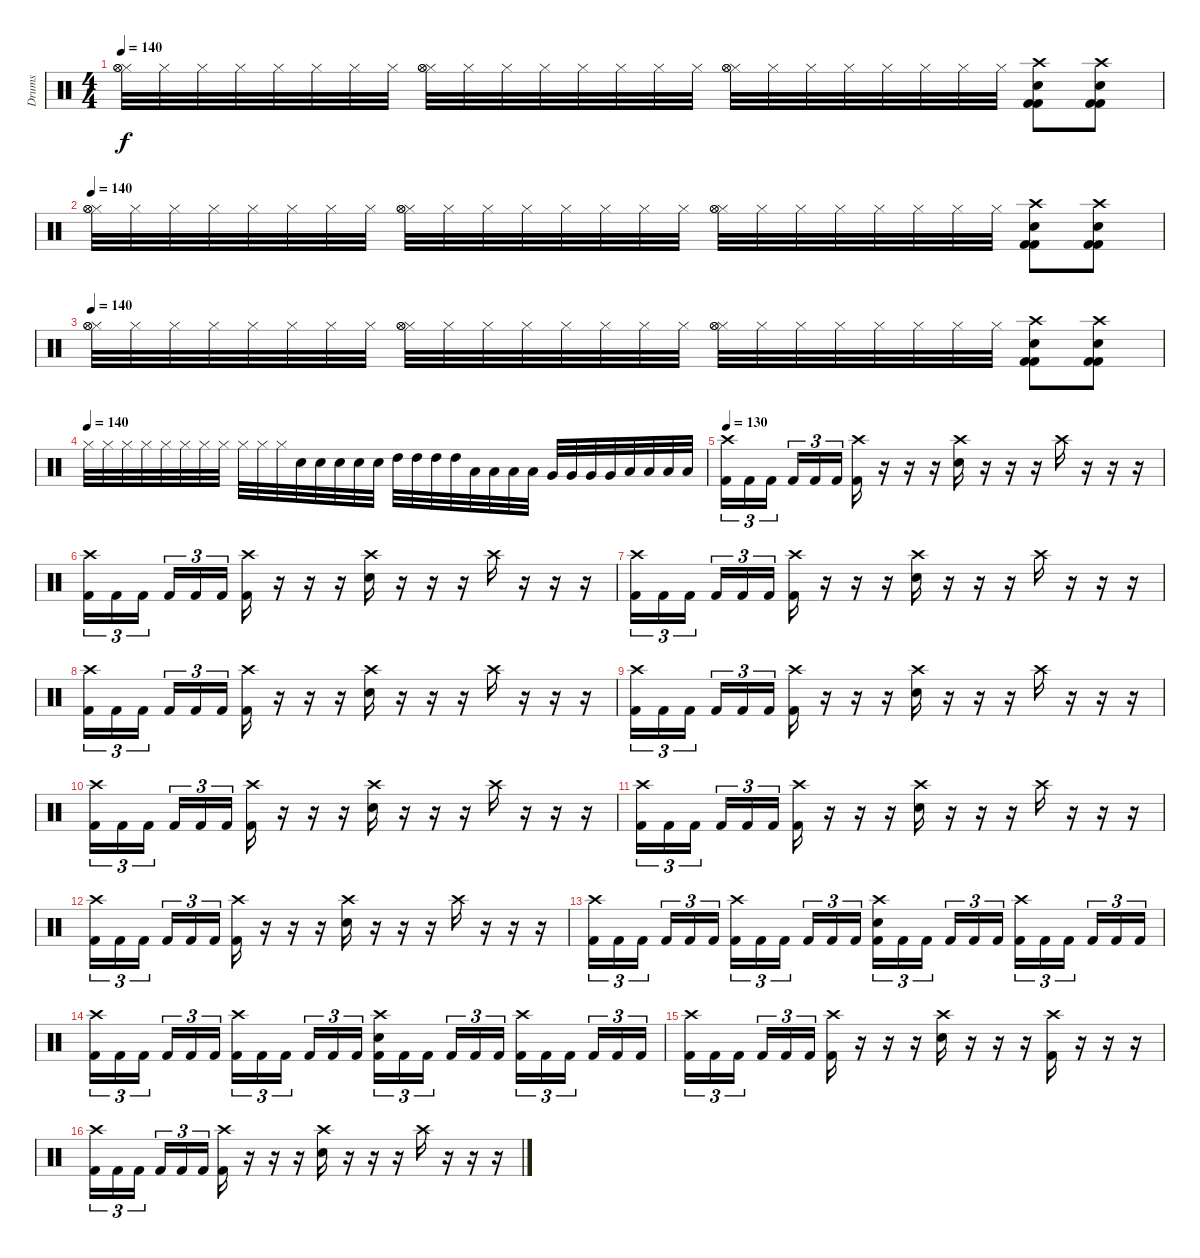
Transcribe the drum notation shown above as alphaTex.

\track ("Drums" "Drums") {instrument percussion}
\staff {score}
\articulation defaults
\ts (4 4)
\tempo 140
\clef neutral
\ks c
("Hi-Hat (closed)" "Hi-Hat (open)" "Hi-Hat (open)").32{dy f} "Hi-Hat (closed)".32 "Hi-Hat (closed)".32 "Hi-Hat (closed)".32 "Hi-Hat (closed)".32 "Hi-Hat (closed)".32 "Hi-Hat (closed)".32 "Hi-Hat (closed)".32 ("Hi-Hat (closed)" "Hi-Hat (open)" "Hi-Hat (open)").32 "Hi-Hat (closed)".32 "Hi-Hat (closed)".32 "Hi-Hat (closed)".32 "Hi-Hat (closed)".32 "Hi-Hat (closed)".32 "Hi-Hat (closed)".32 "Hi-Hat (closed)".32 ("Hi-Hat (closed)" "Hi-Hat (open)" "Hi-Hat (open)").32 "Hi-Hat (closed)".32 "Hi-Hat (closed)".32 "Hi-Hat (closed)".32 "Hi-Hat (closed)".32 "Hi-Hat (closed)".32 "Hi-Hat (closed)".32 "Hi-Hat (closed)".32 ("Crash high (hit)" "Electric Snare (hit)" "Kick (hit) 2" "Kick (hit) 2").8 ("Crash high (hit)" "Electric Snare (hit)" "Kick (hit) 2" "Kick (hit) 2").8 |
\tempo 140
("Hi-Hat (closed)" "Hi-Hat (open)" "Hi-Hat (open)").32 "Hi-Hat (closed)".32 "Hi-Hat (closed)".32 "Hi-Hat (closed)".32 "Hi-Hat (closed)".32 "Hi-Hat (closed)".32 "Hi-Hat (closed)".32 "Hi-Hat (closed)".32 ("Hi-Hat (closed)" "Hi-Hat (open)" "Hi-Hat (open)").32 "Hi-Hat (closed)".32 "Hi-Hat (closed)".32 "Hi-Hat (closed)".32 "Hi-Hat (closed)".32 "Hi-Hat (closed)".32 "Hi-Hat (closed)".32 "Hi-Hat (closed)".32 ("Hi-Hat (closed)" "Hi-Hat (open)" "Hi-Hat (open)").32 "Hi-Hat (closed)".32 "Hi-Hat (closed)".32 "Hi-Hat (closed)".32 "Hi-Hat (closed)".32 "Hi-Hat (closed)".32 "Hi-Hat (closed)".32 "Hi-Hat (closed)".32 ("Crash high (hit)" "Electric Snare (hit)" "Kick (hit) 2" "Kick (hit) 2").8 ("Crash high (hit)" "Electric Snare (hit)" "Kick (hit) 2" "Kick (hit) 2").8 |
\tempo 140
("Hi-Hat (closed)" "Hi-Hat (open)" "Hi-Hat (open)").32 "Hi-Hat (closed)".32 "Hi-Hat (closed)".32 "Hi-Hat (closed)".32 "Hi-Hat (closed)".32 "Hi-Hat (closed)".32 "Hi-Hat (closed)".32 "Hi-Hat (closed)".32 ("Hi-Hat (closed)" "Hi-Hat (open)" "Hi-Hat (open)").32 "Hi-Hat (closed)".32 "Hi-Hat (closed)".32 "Hi-Hat (closed)".32 "Hi-Hat (closed)".32 "Hi-Hat (closed)".32 "Hi-Hat (closed)".32 "Hi-Hat (closed)".32 ("Hi-Hat (closed)" "Hi-Hat (open)" "Hi-Hat (open)").32 "Hi-Hat (closed)".32 "Hi-Hat (closed)".32 "Hi-Hat (closed)".32 "Hi-Hat (closed)".32 "Hi-Hat (closed)".32 "Hi-Hat (closed)".32 "Hi-Hat (closed)".32 ("Crash high (hit)" "Electric Snare (hit)" "Kick (hit) 2" "Kick (hit) 2").8 ("Crash high (hit)" "Electric Snare (hit)" "Kick (hit) 2" "Kick (hit) 2").8 |
\tempo (140)
"Hi-Hat (closed)".32 "Hi-Hat (closed)".32 "Hi-Hat (closed)".32 "Hi-Hat (closed)".32 "Hi-Hat (closed)".32 "Hi-Hat (closed)".32 "Hi-Hat (closed)".32 "Hi-Hat (closed)".32 "Hi-Hat (closed)".32 "Hi-Hat (closed)".32 "Hi-Hat (closed)".32 "Electric Snare (hit)".32 "Electric Snare (hit)".32 "Electric Snare (hit)".32 "Electric Snare (hit)".32 "Electric Snare (hit)".32 "High Tom (hit)".32 "High Tom (hit)".32 "High Tom (hit)".32 "High Tom (hit)".32 "Low Tom (hit)".32 "Low Tom (hit)".32 "Low Tom (hit)".32 "Low Tom (hit)".32 "Very Low Tom (hit)".32 "Very Low Tom (hit)".32 "Very Low Tom (hit)".32 "Very Low Tom (hit)".32 "Low Floor Tom (hit)".32 "Low Floor Tom (hit)".32 "Low Floor Tom (hit)".32 "Low Floor Tom (hit)".32 |
\tempo 130
("Crash high (hit)" "Kick (hit) 2").16{tu (3 2)} "Kick (hit) 2".16{tu (3 2)} "Kick (hit) 2".16{tu (3 2)} "Kick (hit) 2".16{tu (3 2)} "Kick (hit) 2".16{tu (3 2)} "Kick (hit) 2".16{tu (3 2)} ("Crash high (hit)" "Kick (hit) 2").16 r.16 r.16 r.16 ("Crash high (hit)" "Electric Snare (hit)").16 r.16 r.16 r.16 "Crash high (hit)".16 r.16 r.16 r.16 |
("Crash high (hit)" "Kick (hit) 2").16{tu (3 2)} "Kick (hit) 2".16{tu (3 2)} "Kick (hit) 2".16{tu (3 2)} "Kick (hit) 2".16{tu (3 2)} "Kick (hit) 2".16{tu (3 2)} "Kick (hit) 2".16{tu (3 2)} ("Crash high (hit)" "Kick (hit) 2").16 r.16 r.16 r.16 ("Crash high (hit)" "Electric Snare (hit)").16 r.16 r.16 r.16 "Crash high (hit)".16 r.16 r.16 r.16 |
("Crash high (hit)" "Kick (hit) 2").16{tu (3 2)} "Kick (hit) 2".16{tu (3 2)} "Kick (hit) 2".16{tu (3 2)} "Kick (hit) 2".16{tu (3 2)} "Kick (hit) 2".16{tu (3 2)} "Kick (hit) 2".16{tu (3 2)} ("Crash high (hit)" "Kick (hit) 2").16 r.16 r.16 r.16 ("Crash high (hit)" "Electric Snare (hit)").16 r.16 r.16 r.16 "Crash high (hit)".16 r.16 r.16 r.16 |
("Crash high (hit)" "Kick (hit) 2").16{tu (3 2)} "Kick (hit) 2".16{tu (3 2)} "Kick (hit) 2".16{tu (3 2)} "Kick (hit) 2".16{tu (3 2)} "Kick (hit) 2".16{tu (3 2)} "Kick (hit) 2".16{tu (3 2)} ("Crash high (hit)" "Kick (hit) 2").16 r.16 r.16 r.16 ("Crash high (hit)" "Electric Snare (hit)").16 r.16 r.16 r.16 "Crash high (hit)".16 r.16 r.16 r.16 |
("Crash high (hit)" "Kick (hit) 2").16{tu (3 2)} "Kick (hit) 2".16{tu (3 2)} "Kick (hit) 2".16{tu (3 2)} "Kick (hit) 2".16{tu (3 2)} "Kick (hit) 2".16{tu (3 2)} "Kick (hit) 2".16{tu (3 2)} ("Crash high (hit)" "Kick (hit) 2").16 r.16 r.16 r.16 ("Crash high (hit)" "Electric Snare (hit)").16 r.16 r.16 r.16 "Crash high (hit)".16 r.16 r.16 r.16 |
("Crash high (hit)" "Kick (hit) 2").16{tu (3 2)} "Kick (hit) 2".16{tu (3 2)} "Kick (hit) 2".16{tu (3 2)} "Kick (hit) 2".16{tu (3 2)} "Kick (hit) 2".16{tu (3 2)} "Kick (hit) 2".16{tu (3 2)} ("Crash high (hit)" "Kick (hit) 2").16 r.16 r.16 r.16 ("Crash high (hit)" "Electric Snare (hit)").16 r.16 r.16 r.16 "Crash high (hit)".16 r.16 r.16 r.16 |
("Crash high (hit)" "Kick (hit) 2").16{tu (3 2)} "Kick (hit) 2".16{tu (3 2)} "Kick (hit) 2".16{tu (3 2)} "Kick (hit) 2".16{tu (3 2)} "Kick (hit) 2".16{tu (3 2)} "Kick (hit) 2".16{tu (3 2)} ("Crash high (hit)" "Kick (hit) 2").16 r.16 r.16 r.16 ("Crash high (hit)" "Electric Snare (hit)").16 r.16 r.16 r.16 "Crash high (hit)".16 r.16 r.16 r.16 |
("Crash high (hit)" "Kick (hit) 2").16{tu (3 2)} "Kick (hit) 2".16{tu (3 2)} "Kick (hit) 2".16{tu (3 2)} "Kick (hit) 2".16{tu (3 2)} "Kick (hit) 2".16{tu (3 2)} "Kick (hit) 2".16{tu (3 2)} ("Crash high (hit)" "Kick (hit) 2").16 r.16 r.16 r.16 ("Crash high (hit)" "Electric Snare (hit)").16 r.16 r.16 r.16 "Crash high (hit)".16 r.16 r.16 r.16 |
("Crash high (hit)" "Kick (hit) 2").16{tu (3 2)} "Kick (hit) 2".16{tu (3 2)} "Kick (hit) 2".16{tu (3 2)} "Kick (hit) 2".16{tu (3 2)} "Kick (hit) 2".16{tu (3 2)} "Kick (hit) 2".16{tu (3 2)} ("Crash high (hit)" "Kick (hit) 2").16{tu (3 2)} "Kick (hit) 2".16{tu (3 2)} "Kick (hit) 2".16{tu (3 2)} "Kick (hit) 2".16{tu (3 2)} "Kick (hit) 2".16{tu (3 2)} "Kick (hit) 2".16{tu (3 2)} ("Crash high (hit)" "Electric Snare (hit)" "Kick (hit) 2").16{tu (3 2)} "Kick (hit) 2".16{tu (3 2)} "Kick (hit) 2".16{tu (3 2)} "Kick (hit) 2".16{tu (3 2)} "Kick (hit) 2".16{tu (3 2)} "Kick (hit) 2".16{tu (3 2)} ("Crash high (hit)" "Kick (hit) 2").16{tu (3 2)} "Kick (hit) 2".16{tu (3 2)} "Kick (hit) 2".16{tu (3 2)} "Kick (hit) 2".16{tu (3 2)} "Kick (hit) 2".16{tu (3 2)} "Kick (hit) 2".16{tu (3 2)} |
("Crash high (hit)" "Kick (hit) 2").16{tu (3 2)} "Kick (hit) 2".16{tu (3 2)} "Kick (hit) 2".16{tu (3 2)} "Kick (hit) 2".16{tu (3 2)} "Kick (hit) 2".16{tu (3 2)} "Kick (hit) 2".16{tu (3 2)} ("Crash high (hit)" "Kick (hit) 2").16{tu (3 2)} "Kick (hit) 2".16{tu (3 2)} "Kick (hit) 2".16{tu (3 2)} "Kick (hit) 2".16{tu (3 2)} "Kick (hit) 2".16{tu (3 2)} "Kick (hit) 2".16{tu (3 2)} ("Crash high (hit)" "Electric Snare (hit)" "Kick (hit) 2").16{tu (3 2)} "Kick (hit) 2".16{tu (3 2)} "Kick (hit) 2".16{tu (3 2)} "Kick (hit) 2".16{tu (3 2)} "Kick (hit) 2".16{tu (3 2)} "Kick (hit) 2".16{tu (3 2)} ("Crash high (hit)" "Kick (hit) 2").16{tu (3 2)} "Kick (hit) 2".16{tu (3 2)} "Kick (hit) 2".16{tu (3 2)} "Kick (hit) 2".16{tu (3 2)} "Kick (hit) 2".16{tu (3 2)} "Kick (hit) 2".16{tu (3 2)} |
("Crash high (hit)" "Kick (hit) 2").16{tu (3 2)} "Kick (hit) 2".16{tu (3 2)} "Kick (hit) 2".16{tu (3 2)} "Kick (hit) 2".16{tu (3 2)} "Kick (hit) 2".16{tu (3 2)} "Kick (hit) 2".16{tu (3 2)} ("Crash high (hit)" "Kick (hit) 2").16 r.16 r.16 r.16 ("Crash high (hit)" "Electric Snare (hit)").16 r.16 r.16 r.16 ("Crash high (hit)" "Kick (hit) 2").16 r.16 r.16 r.16 |
("Crash high (hit)" "Kick (hit) 2").16{tu (3 2)} "Kick (hit) 2".16{tu (3 2)} "Kick (hit) 2".16{tu (3 2)} "Kick (hit) 2".16{tu (3 2)} "Kick (hit) 2".16{tu (3 2)} "Kick (hit) 2".16{tu (3 2)} ("Crash high (hit)" "Kick (hit) 2").16 r.16 r.16 r.16 ("Crash high (hit)" "Electric Snare (hit)").16 r.16 r.16 r.16 "Crash high (hit)".16 r.16 r.16 r.16
